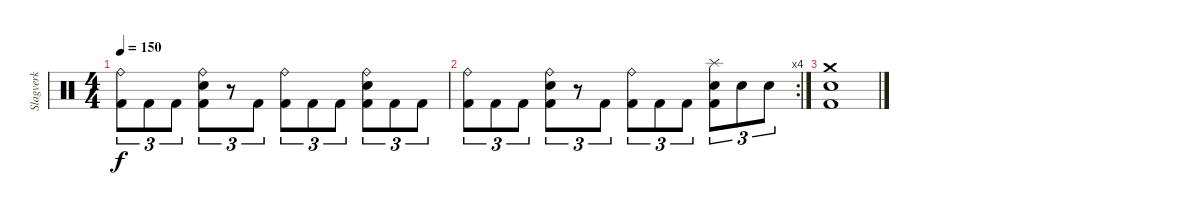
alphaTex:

\track ("Slagverk" "Slagverk") {instrument percussion}
\staff {score}
\articulation defaults
\ts (4 4)
\tempo 150
\clef neutral
\ks c
("Ride (bell)" "Kick (hit) 2").8{tu (3 2) dy f} "Kick (hit) 2".8{tu (3 2)} "Kick (hit) 2".8{tu (3 2)} ("Ride (bell)" "Snare (hit) 2" "Kick (hit) 2").8{tu (3 2)} r.8{tu (3 2)} "Kick (hit) 2".8{tu (3 2)} ("Ride (bell)" "Kick (hit) 2").8{tu (3 2)} "Kick (hit) 2".8{tu (3 2)} "Kick (hit) 2".8{tu (3 2)} ("Ride (bell)" "Snare (hit) 2" "Kick (hit) 2").8{tu (3 2)} "Kick (hit) 2".8{tu (3 2)} "Kick (hit) 2".8{tu (3 2)} |
\rc 4
("Ride (bell)" "Kick (hit) 2").8{tu (3 2)} "Kick (hit) 2".8{tu (3 2)} "Kick (hit) 2".8{tu (3 2)} ("Ride (bell)" "Snare (hit) 2" "Kick (hit) 2").8{tu (3 2)} r.8{tu (3 2)} "Kick (hit) 2".8{tu (3 2)} ("Ride (bell)" "Kick (hit) 2").8{tu (3 2)} "Kick (hit) 2".8{tu (3 2)} "Kick (hit) 2".8{tu (3 2)} ("Splash (hit)" "Snare (hit) 2" "Kick (hit) 2").8{tu (3 2)} "Snare (hit) 2".8{tu (3 2)} "Snare (hit) 2".8{tu (3 2)} |
("Crash medium (hit)" "Snare (hit) 2" "Kick (hit) 2").1
